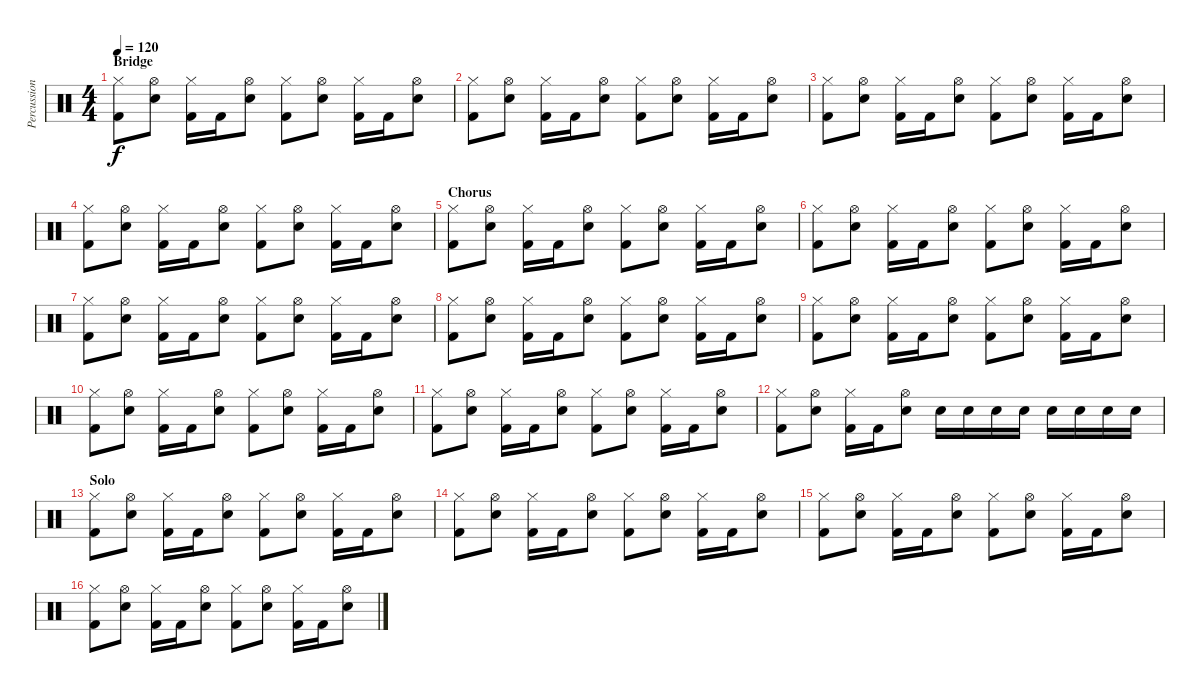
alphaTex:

\track ("Percussion" "Percussion") {instrument percussion}
\staff {score}
\articulation defaults
\ts (4 4)
\section ("" "Bridge")
\tempo 120
\clef neutral
\ks c
("Hi-Hat (closed)" "Kick (hit) 2").8{dy f} ("Hi-Hat (open)" "Snare (hit) 2").8 ("Hi-Hat (closed)" "Kick (hit) 2").16 "Kick (hit) 2".16 ("Hi-Hat (open)" "Snare (hit) 2").8 ("Hi-Hat (closed)" "Kick (hit) 2").8 ("Hi-Hat (open)" "Snare (hit) 2").8 ("Hi-Hat (closed)" "Kick (hit) 2").16 "Kick (hit) 2".16 ("Hi-Hat (open)" "Snare (hit) 2").8 |
("Hi-Hat (closed)" "Kick (hit) 2").8 ("Hi-Hat (open)" "Snare (hit) 2").8 ("Hi-Hat (closed)" "Kick (hit) 2").16 "Kick (hit) 2".16 ("Hi-Hat (open)" "Snare (hit) 2").8 ("Hi-Hat (closed)" "Kick (hit) 2").8 ("Hi-Hat (open)" "Snare (hit) 2").8 ("Hi-Hat (closed)" "Kick (hit) 2").16 "Kick (hit) 2".16 ("Hi-Hat (open)" "Snare (hit) 2").8 |
("Hi-Hat (closed)" "Kick (hit) 2").8 ("Hi-Hat (open)" "Snare (hit) 2").8 ("Hi-Hat (closed)" "Kick (hit) 2").16 "Kick (hit) 2".16 ("Hi-Hat (open)" "Snare (hit) 2").8 ("Hi-Hat (closed)" "Kick (hit) 2").8 ("Hi-Hat (open)" "Snare (hit) 2").8 ("Hi-Hat (closed)" "Kick (hit) 2").16 "Kick (hit) 2".16 ("Hi-Hat (open)" "Snare (hit) 2").8 |
("Hi-Hat (closed)" "Kick (hit) 2").8 ("Hi-Hat (open)" "Snare (hit) 2").8 ("Hi-Hat (closed)" "Kick (hit) 2").16 "Kick (hit) 2".16 ("Hi-Hat (open)" "Snare (hit) 2").8 ("Hi-Hat (closed)" "Kick (hit) 2").8 ("Hi-Hat (open)" "Snare (hit) 2").8 ("Hi-Hat (closed)" "Kick (hit) 2").16 "Kick (hit) 2".16 ("Hi-Hat (open)" "Snare (hit) 2").8 |
\section ("" "Chorus")
("Hi-Hat (closed)" "Kick (hit) 2").8 ("Hi-Hat (open)" "Snare (hit) 2").8 ("Hi-Hat (closed)" "Kick (hit) 2").16 "Kick (hit) 2".16 ("Hi-Hat (open)" "Snare (hit) 2").8 ("Hi-Hat (closed)" "Kick (hit) 2").8 ("Hi-Hat (open)" "Snare (hit) 2").8 ("Hi-Hat (closed)" "Kick (hit) 2").16 "Kick (hit) 2".16 ("Hi-Hat (open)" "Snare (hit) 2").8 |
("Hi-Hat (closed)" "Kick (hit) 2").8 ("Hi-Hat (open)" "Snare (hit) 2").8 ("Hi-Hat (closed)" "Kick (hit) 2").16 "Kick (hit) 2".16 ("Hi-Hat (open)" "Snare (hit) 2").8 ("Hi-Hat (closed)" "Kick (hit) 2").8 ("Hi-Hat (open)" "Snare (hit) 2").8 ("Hi-Hat (closed)" "Kick (hit) 2").16 "Kick (hit) 2".16 ("Hi-Hat (open)" "Snare (hit) 2").8 |
("Hi-Hat (closed)" "Kick (hit) 2").8 ("Hi-Hat (open)" "Snare (hit) 2").8 ("Hi-Hat (closed)" "Kick (hit) 2").16 "Kick (hit) 2".16 ("Hi-Hat (open)" "Snare (hit) 2").8 ("Hi-Hat (closed)" "Kick (hit) 2").8 ("Hi-Hat (open)" "Snare (hit) 2").8 ("Hi-Hat (closed)" "Kick (hit) 2").16 "Kick (hit) 2".16 ("Hi-Hat (open)" "Snare (hit) 2").8 |
("Hi-Hat (closed)" "Kick (hit) 2").8 ("Hi-Hat (open)" "Snare (hit) 2").8 ("Hi-Hat (closed)" "Kick (hit) 2").16 "Kick (hit) 2".16 ("Hi-Hat (open)" "Snare (hit) 2").8 ("Hi-Hat (closed)" "Kick (hit) 2").8 ("Hi-Hat (open)" "Snare (hit) 2").8 ("Hi-Hat (closed)" "Kick (hit) 2").16 "Kick (hit) 2".16 ("Hi-Hat (open)" "Snare (hit) 2").8 |
("Hi-Hat (closed)" "Kick (hit) 2").8 ("Hi-Hat (open)" "Snare (hit) 2").8 ("Hi-Hat (closed)" "Kick (hit) 2").16 "Kick (hit) 2".16 ("Hi-Hat (open)" "Snare (hit) 2").8 ("Hi-Hat (closed)" "Kick (hit) 2").8 ("Hi-Hat (open)" "Snare (hit) 2").8 ("Hi-Hat (closed)" "Kick (hit) 2").16 "Kick (hit) 2".16 ("Hi-Hat (open)" "Snare (hit) 2").8 |
("Hi-Hat (closed)" "Kick (hit) 2").8 ("Hi-Hat (open)" "Snare (hit) 2").8 ("Hi-Hat (closed)" "Kick (hit) 2").16 "Kick (hit) 2".16 ("Hi-Hat (open)" "Snare (hit) 2").8 ("Hi-Hat (closed)" "Kick (hit) 2").8 ("Hi-Hat (open)" "Snare (hit) 2").8 ("Hi-Hat (closed)" "Kick (hit) 2").16 "Kick (hit) 2".16 ("Hi-Hat (open)" "Snare (hit) 2").8 |
("Hi-Hat (closed)" "Kick (hit) 2").8 ("Hi-Hat (open)" "Snare (hit) 2").8 ("Hi-Hat (closed)" "Kick (hit) 2").16 "Kick (hit) 2".16 ("Hi-Hat (open)" "Snare (hit) 2").8 ("Hi-Hat (closed)" "Kick (hit) 2").8 ("Hi-Hat (open)" "Snare (hit) 2").8 ("Hi-Hat (closed)" "Kick (hit) 2").16 "Kick (hit) 2".16 ("Hi-Hat (open)" "Snare (hit) 2").8 |
("Hi-Hat (closed)" "Kick (hit) 2").8 ("Hi-Hat (open)" "Snare (hit) 2").8 ("Hi-Hat (closed)" "Kick (hit) 2").16 "Kick (hit) 2".16 ("Hi-Hat (open)" "Snare (hit) 2").8 "Snare (hit) 2".16 "Snare (hit) 2".16 "Snare (hit) 2".16 "Snare (hit) 2".16 "Snare (hit) 2".16 "Snare (hit) 2".16 "Snare (hit) 2".16 "Snare (hit) 2".16 |
\section ("" "Solo")
("Hi-Hat (closed)" "Kick (hit) 2").8 ("Hi-Hat (open)" "Snare (hit) 2").8 ("Hi-Hat (closed)" "Kick (hit) 2").16 "Kick (hit) 2".16 ("Hi-Hat (open)" "Snare (hit) 2").8 ("Hi-Hat (closed)" "Kick (hit) 2").8 ("Hi-Hat (open)" "Snare (hit) 2").8 ("Hi-Hat (closed)" "Kick (hit) 2").16 "Kick (hit) 2".16 ("Hi-Hat (open)" "Snare (hit) 2").8 |
("Hi-Hat (closed)" "Kick (hit) 2").8 ("Hi-Hat (open)" "Snare (hit) 2").8 ("Hi-Hat (closed)" "Kick (hit) 2").16 "Kick (hit) 2".16 ("Hi-Hat (open)" "Snare (hit) 2").8 ("Hi-Hat (closed)" "Kick (hit) 2").8 ("Hi-Hat (open)" "Snare (hit) 2").8 ("Hi-Hat (closed)" "Kick (hit) 2").16 "Kick (hit) 2".16 ("Hi-Hat (open)" "Snare (hit) 2").8 |
("Hi-Hat (closed)" "Kick (hit) 2").8 ("Hi-Hat (open)" "Snare (hit) 2").8 ("Hi-Hat (closed)" "Kick (hit) 2").16 "Kick (hit) 2".16 ("Hi-Hat (open)" "Snare (hit) 2").8 ("Hi-Hat (closed)" "Kick (hit) 2").8 ("Hi-Hat (open)" "Snare (hit) 2").8 ("Hi-Hat (closed)" "Kick (hit) 2").16 "Kick (hit) 2".16 ("Hi-Hat (open)" "Snare (hit) 2").8 |
("Hi-Hat (closed)" "Kick (hit) 2").8 ("Hi-Hat (open)" "Snare (hit) 2").8 ("Hi-Hat (closed)" "Kick (hit) 2").16 "Kick (hit) 2".16 ("Hi-Hat (open)" "Snare (hit) 2").8 ("Hi-Hat (closed)" "Kick (hit) 2").8 ("Hi-Hat (open)" "Snare (hit) 2").8 ("Hi-Hat (closed)" "Kick (hit) 2").16 "Kick (hit) 2".16 ("Hi-Hat (open)" "Snare (hit) 2").8
